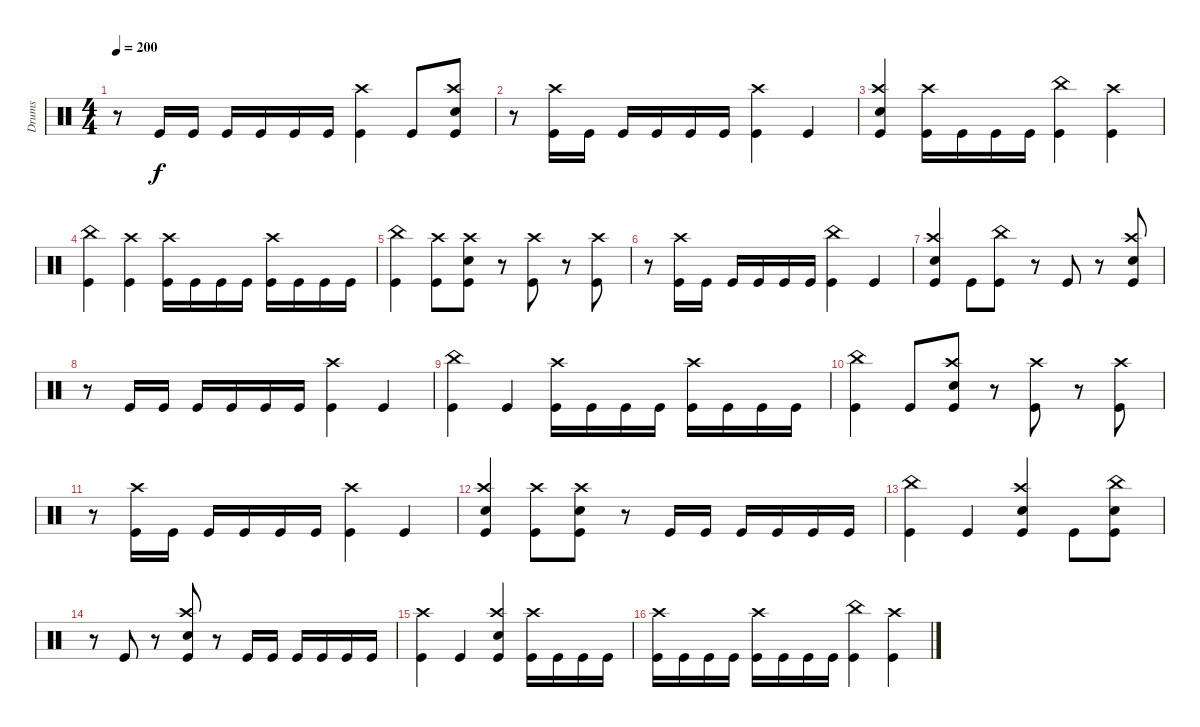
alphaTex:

\track ("Drums" "Drums") {instrument percussion}
\staff {score}
\articulation defaults
\ts (4 4)
\tempo 200
\clef neutral
\ks c
r.8{dy f} "Kick (hit)".16 "Kick (hit)".16 "Kick (hit)".16 "Kick (hit)".16 "Kick (hit)".16 "Kick (hit)".16 ("Crash high (hit)" "Kick (hit)").4 "Kick (hit)".8 ("Crash high (hit)" "Snare (hit) 2" "Kick (hit)").8 |
r.8 ("Crash high (hit)" "Kick (hit)").16 "Kick (hit)".16 "Kick (hit)".16 "Kick (hit)".16 "Kick (hit)".16 "Kick (hit)".16 ("Crash high (hit)" "Kick (hit)").4 "Kick (hit)".4 |
("Crash high (hit)" "Snare (hit) 2" "Kick (hit)").4 ("Crash high (hit)" "Kick (hit)").16 "Kick (hit)".16 "Kick (hit)".16 "Kick (hit)".16 ("China (hit)" "Kick (hit)").4 ("Crash high (hit)" "Kick (hit)").4 |
("China (hit)" "Kick (hit)").4 ("Crash high (hit)" "Kick (hit)").4 ("Crash high (hit)" "Kick (hit)").16 "Kick (hit)".16 "Kick (hit)".16 "Kick (hit)".16 ("Crash high (hit)" "Kick (hit)").16 "Kick (hit)".16 "Kick (hit)".16 "Kick (hit)".16 |
("China (hit)" "Kick (hit)").4 ("Crash high (hit)" "Kick (hit)").8 ("Crash high (hit)" "Snare (hit) 2" "Kick (hit)").8 r.8 ("Crash high (hit)" "Kick (hit)").8 r.8 ("Crash high (hit)" "Kick (hit)").8 |
r.8 ("Crash high (hit)" "Kick (hit)").16 "Kick (hit)".16 "Kick (hit)".16 "Kick (hit)".16 "Kick (hit)".16 "Kick (hit)".16 ("China (hit)" "Kick (hit)").4 "Kick (hit)".4 |
("Crash high (hit)" "Snare (hit) 2" "Kick (hit)").4 "Kick (hit)".8 ("China (hit)" "Kick (hit)").8 r.8 "Kick (hit)".8 r.8 ("Crash high (hit)" "Snare (hit) 2" "Kick (hit)").8 |
r.8 "Kick (hit)".16 "Kick (hit)".16 "Kick (hit)".16 "Kick (hit)".16 "Kick (hit)".16 "Kick (hit)".16 ("Crash high (hit)" "Kick (hit)").4 "Kick (hit)".4 |
("China (hit)" "Kick (hit)").4 "Kick (hit)".4 ("Crash high (hit)" "Kick (hit)").16 "Kick (hit)".16 "Kick (hit)".16 "Kick (hit)".16 ("Crash high (hit)" "Kick (hit)").16 "Kick (hit)".16 "Kick (hit)".16 "Kick (hit)".16 |
("China (hit)" "Kick (hit)").4 "Kick (hit)".8 ("Crash high (hit)" "Snare (hit) 2" "Kick (hit)").8 r.8 ("Crash high (hit)" "Kick (hit)").8 r.8 ("Crash high (hit)" "Kick (hit)").8 |
r.8 ("Crash high (hit)" "Kick (hit)").16 "Kick (hit)".16 "Kick (hit)".16 "Kick (hit)".16 "Kick (hit)".16 "Kick (hit)".16 ("Crash high (hit)" "Kick (hit)").4 "Kick (hit)".4 |
("Crash high (hit)" "Snare (hit) 2" "Kick (hit)").4 ("Crash high (hit)" "Kick (hit)").8 ("Crash high (hit)" "Snare (hit) 2" "Kick (hit)").8 r.8 "Kick (hit)".16 "Kick (hit)".16 "Kick (hit)".16 "Kick (hit)".16 "Kick (hit)".16 "Kick (hit)".16 |
("China (hit)" "Kick (hit)").4 "Kick (hit)".4 ("Crash high (hit)" "Snare (hit) 2" "Kick (hit)").4 "Kick (hit)".8 ("China (hit)" "Snare (hit) 2" "Kick (hit)").8 |
r.8 "Kick (hit)".8 r.8 ("Crash high (hit)" "Snare (hit) 2" "Kick (hit)").8 r.8 "Kick (hit)".16 "Kick (hit)".16 "Kick (hit)".16 "Kick (hit)".16 "Kick (hit)".16 "Kick (hit)".16 |
("Crash high (hit)" "Kick (hit)").4 "Kick (hit)".4 ("Crash high (hit)" "Snare (hit) 2" "Kick (hit)").4 ("Crash high (hit)" "Kick (hit)").16 "Kick (hit)".16 "Kick (hit)".16 "Kick (hit)".16 |
("Crash high (hit)" "Kick (hit)").16 "Kick (hit)".16 "Kick (hit)".16 "Kick (hit)".16 ("Crash high (hit)" "Kick (hit)").16 "Kick (hit)".16 "Kick (hit)".16 "Kick (hit)".16 ("China (hit)" "Kick (hit)").4 ("Crash high (hit)" "Kick (hit)").4
